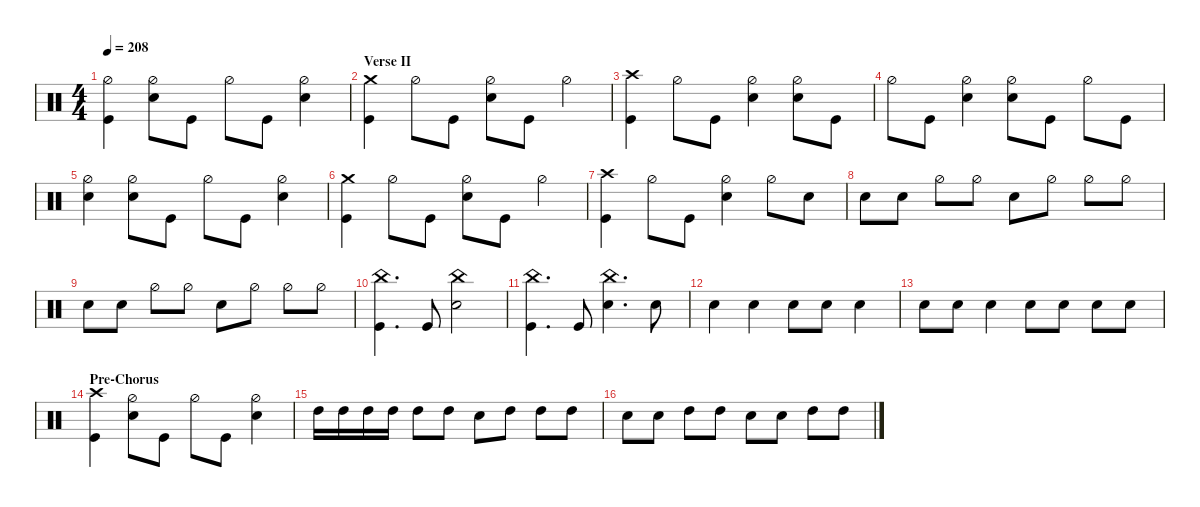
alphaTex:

\defaultSystemsLayout 4
\hideDynamics
\bracketExtendMode nobrackets
\singleTrackTrackNamePolicy hidden
\multiTrackTrackNamePolicy hidden
\otherSystemsTrackNameOrientation horizontal
\track ("Drums" "drm.") {multiBarRest instrument percussion}
\staff {score}
\articulation defaults
\ts (4 4)
\tempo 208
\clef neutral
\ks c
("Kick (hit)" "Hi-Hat (half)").4{dy f beam Down} ("Snare (hit) 2" "Hi-Hat (half)").8{beam Down} "Kick (hit)".8{beam Down} "Hi-Hat (half)".8{beam Down} "Kick (hit)".8{beam Down} ("Snare (hit) 2" "Hi-Hat (half)").4{beam Down} |
\section ("" "Verse II")
("Crash medium (hit)" "Kick (hit)").4{beam Down} "Hi-Hat (half)".8{beam Down} "Kick (hit)".8{beam Down} ("Hi-Hat (half)" "Snare (hit) 2").8{beam Down} "Kick (hit)".8{beam Down} "Hi-Hat (half)".4{beam Down} |
("Crash high (hit)" "Kick (hit)").4{beam Down} "Hi-Hat (half)".8{beam Down} "Kick (hit)".8{beam Down} ("Hi-Hat (half)" "Snare (hit) 2").4{beam Down} ("Snare (hit) 2" "Hi-Hat (half)").8{beam Down} "Kick (hit)".8{beam Down} |
"Hi-Hat (half)".8{beam Down} "Kick (hit)".8{beam Down} ("Snare (hit) 2" "Hi-Hat (half)").4{beam Down} ("Snare (hit) 2" "Hi-Hat (half)").8{beam Down} "Kick (hit)".8{beam Down} "Hi-Hat (half)".8{beam Down} "Kick (hit)".8{beam Down} |
("Snare (hit) 2" "Hi-Hat (half)").4{beam Down} ("Snare (hit) 2" "Hi-Hat (half)").8{beam Down} "Kick (hit)".8{beam Down} "Hi-Hat (half)".8{beam Down} "Kick (hit)".8{beam Down} ("Snare (hit) 2" "Hi-Hat (half)").4{beam Down} |
("Crash medium (hit)" "Kick (hit)").4{beam Down} "Hi-Hat (half)".8{beam Down} "Kick (hit)".8{beam Down} ("Hi-Hat (half)" "Snare (hit) 2").8{beam Down} "Kick (hit)".8{beam Down} "Hi-Hat (half)".4{beam Down} |
("Kick (hit)" "Crash high (hit)").4{beam Down} "Hi-Hat (half)".8{beam Down} "Kick (hit)".8{beam Down} ("Snare (hit) 2" "Hi-Hat (half)").4{beam Down} "Hi-Hat (half)".8{beam Down} "Snare (hit) 2".8{beam Down} |
"Snare (hit) 2".8{beam Down} "Snare (hit) 2".8{beam Down} "Hi-Hat (half)".8{beam Down} "Hi-Hat (half)".8{beam Down} "Snare (hit) 2".8{beam Down} "Hi-Hat (half)".8{beam Down} "Hi-Hat (half)".8{beam Down} "Hi-Hat (half)".8{beam Down} |
"Snare (hit) 2".8{beam Down} "Snare (hit) 2".8{beam Down} "Hi-Hat (half)".8{beam Down} "Hi-Hat (half)".8{beam Down} "Snare (hit) 2".8{beam Down} "Hi-Hat (half)".8{beam Down} "Hi-Hat (half)".8{beam Down} "Hi-Hat (half)".8{beam Down} |
("China (hit)" "Kick (hit)").4{d beam Down} "Kick (hit)".8{beam Up} ("Snare (hit) 2" "China (hit)").2{beam Down} |
("China (hit)" "Kick (hit)").4{d beam Down} "Kick (hit)".8{beam Up} ("Snare (hit) 2" "China (hit)").4{d beam Down} "Snare (hit) 2".8{beam Down} |
"Snare (hit) 2".4{beam Down} "Snare (hit) 2".4{beam Down} "Snare (hit) 2".8{beam Down} "Snare (hit) 2".8{beam Down} "Snare (hit) 2".4{beam Down} |
"Snare (hit) 2".8{beam Down} "Snare (hit) 2".8{beam Down} "Snare (hit) 2".4{beam Down} "Snare (hit) 2".8{beam Down} "Snare (hit) 2".8{beam Down} "Snare (hit) 2".8{beam Down} "Snare (hit) 2".8{beam Down} |
\section ("" "Pre-Chorus")
("Crash high (hit)" "Kick (hit)").4{beam Down} ("Snare (hit) 2" "Hi-Hat (half)").8{beam Down} "Kick (hit)".8{beam Down} "Hi-Hat (half)".8{beam Down} "Kick (hit)".8{beam Down} ("Snare (hit) 2" "Hi-Hat (half)").4{beam Down} |
"High Tom (hit)".16{dy ff beam Down} "High Tom (hit)".16{beam Down} "High Tom (hit)".16{beam Down} "High Tom (hit)".16{beam Down} "High Tom (hit)".8{beam Down} "High Tom (hit)".8{beam Down} "Snare (hit) 2".8{dy f beam Down} "High Tom (hit)".8{dy ff beam Down} "High Tom (hit)".8{beam Down} "High Tom (hit)".8{beam Down} |
"Snare (hit) 2".8{dy f beam Down} "Snare (hit) 2".8{beam Down} "High Tom (hit)".8{dy ff beam Down} "High Tom (hit)".8{beam Down} "Snare (hit) 2".8{dy f beam Down} "Snare (hit) 2".8{beam Down} "High Tom (hit)".8{dy ff beam Down} "High Tom (hit)".8{beam Down}
